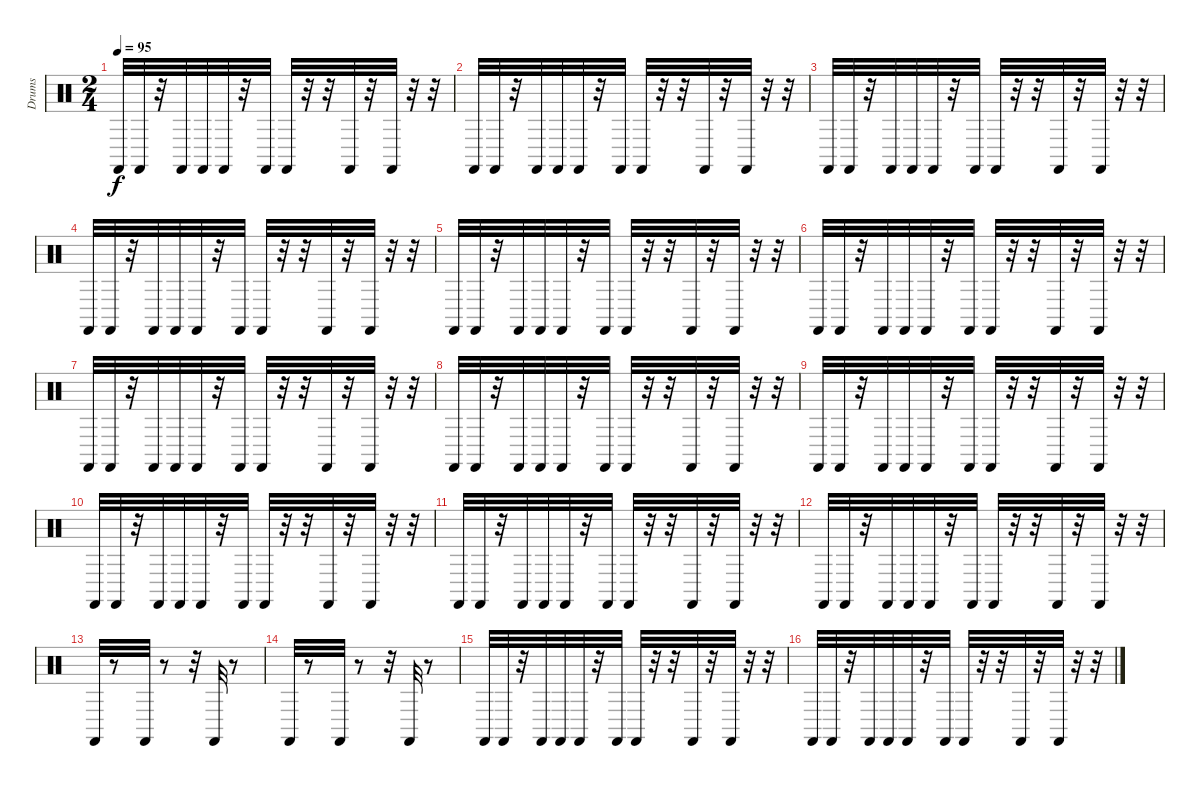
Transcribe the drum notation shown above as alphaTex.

\track ("Drums" "Drums") {instrument percussion}
\staff {score}
\articulation defaults
\ts (2 4)
\tempo 95
\clef neutral
\ks c "Castanets (hit)".32{dy f} "Castanets (hit)".32
r.32 "Castanets (hit)".32 "Castanets (hit)".32 "Castanets (hit)".32 r.32 "Castanets (hit)".32 "Castanets (hit)".32 r.32 r.32 "Castanets (hit)".32 r.32 "Castanets (hit)".32 r.32 r.32 |
"Castanets (hit)".32 "Castanets (hit)".32 r.32 "Castanets (hit)".32 "Castanets (hit)".32 "Castanets (hit)".32 r.32 "Castanets (hit)".32 "Castanets (hit)".32 r.32 r.32 "Castanets (hit)".32 r.32 "Castanets (hit)".32 r.32 r.32 |
"Castanets (hit)".32 "Castanets (hit)".32 r.32 "Castanets (hit)".32 "Castanets (hit)".32 "Castanets (hit)".32 r.32 "Castanets (hit)".32 "Castanets (hit)".32 r.32 r.32 "Castanets (hit)".32 r.32 "Castanets (hit)".32 r.32 r.32 |
"Castanets (hit)".32 "Castanets (hit)".32 r.32 "Castanets (hit)".32 "Castanets (hit)".32 "Castanets (hit)".32 r.32 "Castanets (hit)".32 "Castanets (hit)".32 r.32 r.32 "Castanets (hit)".32 r.32 "Castanets (hit)".32 r.32 r.32 |
"Castanets (hit)".32 "Castanets (hit)".32 r.32 "Castanets (hit)".32 "Castanets (hit)".32 "Castanets (hit)".32 r.32 "Castanets (hit)".32 "Castanets (hit)".32 r.32 r.32 "Castanets (hit)".32 r.32 "Castanets (hit)".32 r.32 r.32 |
"Castanets (hit)".32 "Castanets (hit)".32 r.32 "Castanets (hit)".32 "Castanets (hit)".32 "Castanets (hit)".32 r.32 "Castanets (hit)".32 "Castanets (hit)".32 r.32 r.32 "Castanets (hit)".32 r.32 "Castanets (hit)".32 r.32 r.32 |
"Castanets (hit)".32 "Castanets (hit)".32 r.32 "Castanets (hit)".32 "Castanets (hit)".32 "Castanets (hit)".32 r.32 "Castanets (hit)".32 "Castanets (hit)".32 r.32 r.32 "Castanets (hit)".32 r.32 "Castanets (hit)".32 r.32 r.32 |
"Castanets (hit)".32 "Castanets (hit)".32 r.32 "Castanets (hit)".32 "Castanets (hit)".32 "Castanets (hit)".32 r.32 "Castanets (hit)".32 "Castanets (hit)".32 r.32 r.32 "Castanets (hit)".32 r.32 "Castanets (hit)".32 r.32 r.32 |
"Castanets (hit)".32 "Castanets (hit)".32 r.32 "Castanets (hit)".32 "Castanets (hit)".32 "Castanets (hit)".32 r.32 "Castanets (hit)".32 "Castanets (hit)".32 r.32 r.32 "Castanets (hit)".32 r.32 "Castanets (hit)".32 r.32 r.32 |
"Castanets (hit)".32 "Castanets (hit)".32 r.32 "Castanets (hit)".32 "Castanets (hit)".32 "Castanets (hit)".32 r.32 "Castanets (hit)".32 "Castanets (hit)".32 r.32 r.32 "Castanets (hit)".32 r.32 "Castanets (hit)".32 r.32 r.32 |
"Castanets (hit)".32 "Castanets (hit)".32 r.32 "Castanets (hit)".32 "Castanets (hit)".32 "Castanets (hit)".32 r.32 "Castanets (hit)".32 "Castanets (hit)".32 r.32 r.32 "Castanets (hit)".32 r.32 "Castanets (hit)".32 r.32 r.32 |
"Castanets (hit)".32 "Castanets (hit)".32 r.32 "Castanets (hit)".32 "Castanets (hit)".32 "Castanets (hit)".32 r.32 "Castanets (hit)".32 "Castanets (hit)".32 r.32 r.32 "Castanets (hit)".32 r.32 "Castanets (hit)".32 r.32 r.32 |
"Castanets (hit)".32 r.8 "Castanets (hit)".32 r.8 r.32 "Castanets (hit)".32 r.8 |
"Castanets (hit)".32 r.8 "Castanets (hit)".32 r.8 r.32 "Castanets (hit)".32 r.8 |
"Castanets (hit)".32 "Castanets (hit)".32 r.32 "Castanets (hit)".32 "Castanets (hit)".32 "Castanets (hit)".32 r.32 "Castanets (hit)".32 "Castanets (hit)".32 r.32 r.32 "Castanets (hit)".32 r.32 "Castanets (hit)".32 r.32 r.32 |
"Castanets (hit)".32 "Castanets (hit)".32 r.32 "Castanets (hit)".32 "Castanets (hit)".32 "Castanets (hit)".32 r.32 "Castanets (hit)".32 "Castanets (hit)".32 r.32 r.32 "Castanets (hit)".32 r.32 "Castanets (hit)".32 r.32 r.32
